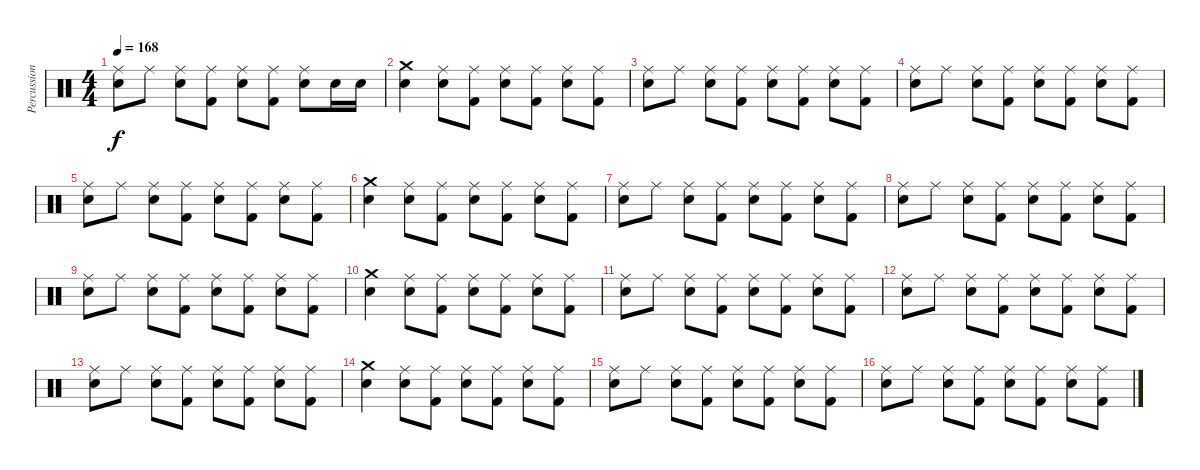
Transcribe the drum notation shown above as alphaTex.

\track ("Percussion" "Percussion") {instrument percussion}
\staff {score}
\articulation defaults
\ts (4 4)
\tempo 168
\clef neutral
\ks c
("Ride (middle)" "Snare (hit) 2").8{dy f} "Ride (middle)".8 ("Ride (middle)" "Snare (hit) 2").8 ("Ride (middle)" "Kick (hit) 2").8 ("Ride (middle)" "Snare (hit) 2").8 ("Ride (middle)" "Kick (hit) 2").8 ("Ride (middle)" "Snare (hit) 2").8 "Snare (hit) 2".16 "Snare (hit) 2".16 |
("Crash medium (hit)" "Snare (hit) 2").4 ("Ride (middle)" "Snare (hit) 2").8 ("Ride (middle)" "Kick (hit) 2").8 ("Ride (middle)" "Snare (hit) 2").8 ("Ride (middle)" "Kick (hit) 2").8 ("Ride (middle)" "Snare (hit) 2").8 ("Ride (middle)" "Kick (hit) 2").8 |
("Ride (middle)" "Snare (hit) 2").8 "Ride (middle)".8 ("Ride (middle)" "Snare (hit) 2").8 ("Ride (middle)" "Kick (hit) 2").8 ("Ride (middle)" "Snare (hit) 2").8 ("Ride (middle)" "Kick (hit) 2").8 ("Ride (middle)" "Snare (hit) 2").8 ("Ride (middle)" "Kick (hit) 2").8 |
("Ride (middle)" "Snare (hit) 2").8 "Ride (middle)".8 ("Ride (middle)" "Snare (hit) 2").8 ("Ride (middle)" "Kick (hit) 2").8 ("Ride (middle)" "Snare (hit) 2").8 ("Ride (middle)" "Kick (hit) 2").8 ("Ride (middle)" "Snare (hit) 2").8 ("Ride (middle)" "Kick (hit) 2").8 |
("Ride (middle)" "Snare (hit) 2").8 "Ride (middle)".8 ("Ride (middle)" "Snare (hit) 2").8 ("Ride (middle)" "Kick (hit) 2").8 ("Ride (middle)" "Snare (hit) 2").8 ("Ride (middle)" "Kick (hit) 2").8 ("Ride (middle)" "Snare (hit) 2").8 ("Ride (middle)" "Kick (hit) 2").8 |
("Crash medium (hit)" "Snare (hit) 2").4 ("Ride (middle)" "Snare (hit) 2").8 ("Ride (middle)" "Kick (hit) 2").8 ("Ride (middle)" "Snare (hit) 2").8 ("Ride (middle)" "Kick (hit) 2").8 ("Ride (middle)" "Snare (hit) 2").8 ("Ride (middle)" "Kick (hit) 2").8 |
("Ride (middle)" "Snare (hit) 2").8 "Ride (middle)".8 ("Ride (middle)" "Snare (hit) 2").8 ("Ride (middle)" "Kick (hit) 2").8 ("Ride (middle)" "Snare (hit) 2").8 ("Ride (middle)" "Kick (hit) 2").8 ("Ride (middle)" "Snare (hit) 2").8 ("Ride (middle)" "Kick (hit) 2").8 |
("Ride (middle)" "Snare (hit) 2").8 "Ride (middle)".8 ("Ride (middle)" "Snare (hit) 2").8 ("Ride (middle)" "Kick (hit) 2").8 ("Ride (middle)" "Snare (hit) 2").8 ("Ride (middle)" "Kick (hit) 2").8 ("Ride (middle)" "Snare (hit) 2").8 ("Ride (middle)" "Kick (hit) 2").8 |
("Ride (middle)" "Snare (hit) 2").8 "Ride (middle)".8 ("Ride (middle)" "Snare (hit) 2").8 ("Ride (middle)" "Kick (hit) 2").8 ("Ride (middle)" "Snare (hit) 2").8 ("Ride (middle)" "Kick (hit) 2").8 ("Ride (middle)" "Snare (hit) 2").8 ("Ride (middle)" "Kick (hit) 2").8 |
("Crash medium (hit)" "Snare (hit) 2").4 ("Ride (middle)" "Snare (hit) 2").8 ("Ride (middle)" "Kick (hit) 2").8 ("Ride (middle)" "Snare (hit) 2").8 ("Ride (middle)" "Kick (hit) 2").8 ("Ride (middle)" "Snare (hit) 2").8 ("Ride (middle)" "Kick (hit) 2").8 |
("Ride (middle)" "Snare (hit) 2").8 "Ride (middle)".8 ("Ride (middle)" "Snare (hit) 2").8 ("Ride (middle)" "Kick (hit) 2").8 ("Ride (middle)" "Snare (hit) 2").8 ("Ride (middle)" "Kick (hit) 2").8 ("Ride (middle)" "Snare (hit) 2").8 ("Ride (middle)" "Kick (hit) 2").8 |
("Ride (middle)" "Snare (hit) 2").8 "Ride (middle)".8 ("Ride (middle)" "Snare (hit) 2").8 ("Ride (middle)" "Kick (hit) 2").8 ("Ride (middle)" "Snare (hit) 2").8 ("Ride (middle)" "Kick (hit) 2").8 ("Ride (middle)" "Snare (hit) 2").8 ("Ride (middle)" "Kick (hit) 2").8 |
("Ride (middle)" "Snare (hit) 2").8 "Ride (middle)".8 ("Ride (middle)" "Snare (hit) 2").8 ("Ride (middle)" "Kick (hit) 2").8 ("Ride (middle)" "Snare (hit) 2").8 ("Ride (middle)" "Kick (hit) 2").8 ("Ride (middle)" "Snare (hit) 2").8 ("Ride (middle)" "Kick (hit) 2").8 |
("Crash medium (hit)" "Snare (hit) 2").4 ("Ride (middle)" "Snare (hit) 2").8 ("Ride (middle)" "Kick (hit) 2").8 ("Ride (middle)" "Snare (hit) 2").8 ("Ride (middle)" "Kick (hit) 2").8 ("Ride (middle)" "Snare (hit) 2").8 ("Ride (middle)" "Kick (hit) 2").8 |
("Ride (middle)" "Snare (hit) 2").8 "Ride (middle)".8 ("Ride (middle)" "Snare (hit) 2").8 ("Ride (middle)" "Kick (hit) 2").8 ("Ride (middle)" "Snare (hit) 2").8 ("Ride (middle)" "Kick (hit) 2").8 ("Ride (middle)" "Snare (hit) 2").8 ("Ride (middle)" "Kick (hit) 2").8 |
("Ride (middle)" "Snare (hit) 2").8 "Ride (middle)".8 ("Ride (middle)" "Snare (hit) 2").8 ("Ride (middle)" "Kick (hit) 2").8 ("Ride (middle)" "Snare (hit) 2").8 ("Ride (middle)" "Kick (hit) 2").8 ("Ride (middle)" "Snare (hit) 2").8 ("Ride (middle)" "Kick (hit) 2").8
